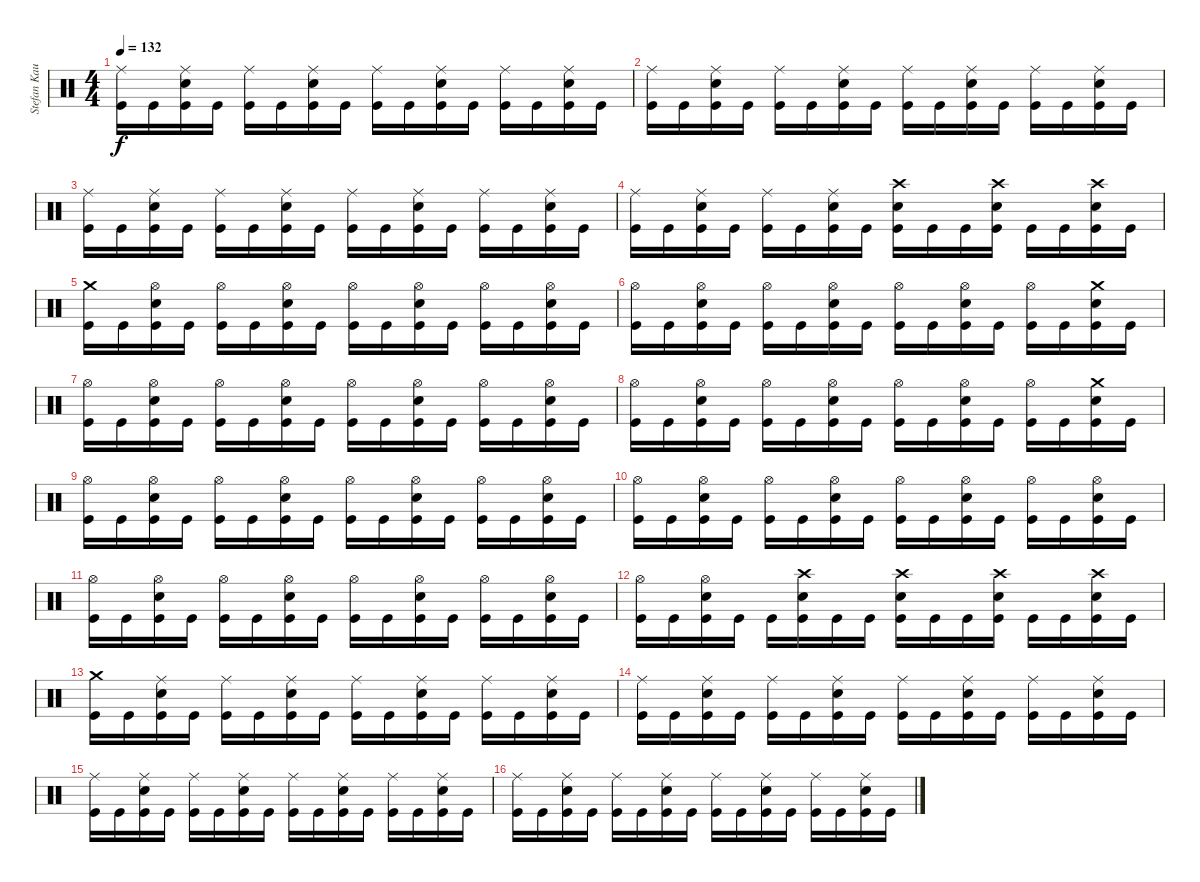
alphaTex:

\track ("Stefan Kaufmann" "Stefan Kau") {instrument percussion}
\staff {score}
\articulation defaults
\ts (4 4)
\tempo 132
\clef neutral
\ks c
("Ride (middle)" "Kick (hit)").16{dy f} "Kick (hit)".16 ("Ride (middle)" "Snare (hit) 2" "Kick (hit)").16 "Kick (hit)".16 ("Ride (middle)" "Kick (hit)").16 "Kick (hit)".16 ("Ride (middle)" "Snare (hit) 2" "Kick (hit)").16 "Kick (hit)".16 ("Ride (middle)" "Kick (hit)").16 "Kick (hit)".16 ("Ride (middle)" "Snare (hit) 2" "Kick (hit)").16 "Kick (hit)".16 ("Ride (middle)" "Kick (hit)").16 "Kick (hit)".16 ("Ride (middle)" "Snare (hit) 2" "Kick (hit)").16 "Kick (hit)".16 |
("Ride (middle)" "Kick (hit)").16 "Kick (hit)".16 ("Ride (middle)" "Snare (hit) 2" "Kick (hit)").16 "Kick (hit)".16 ("Ride (middle)" "Kick (hit)").16 "Kick (hit)".16 ("Ride (middle)" "Snare (hit) 2" "Kick (hit)").16 "Kick (hit)".16 ("Ride (middle)" "Kick (hit)").16 "Kick (hit)".16 ("Ride (middle)" "Snare (hit) 2" "Kick (hit)").16 "Kick (hit)".16 ("Ride (middle)" "Kick (hit)").16 "Kick (hit)".16 ("Ride (middle)" "Snare (hit) 2" "Kick (hit)").16 "Kick (hit)".16 |
("Ride (middle)" "Kick (hit)").16 "Kick (hit)".16 ("Ride (middle)" "Snare (hit) 2" "Kick (hit)").16 "Kick (hit)".16 ("Ride (middle)" "Kick (hit)").16 "Kick (hit)".16 ("Ride (middle)" "Snare (hit) 2" "Kick (hit)").16 "Kick (hit)".16 ("Ride (middle)" "Kick (hit)").16 "Kick (hit)".16 ("Ride (middle)" "Snare (hit) 2" "Kick (hit)").16 "Kick (hit)".16 ("Ride (middle)" "Kick (hit)").16 "Kick (hit)".16 ("Ride (middle)" "Snare (hit) 2" "Kick (hit)").16 "Kick (hit)".16 |
("Ride (middle)" "Kick (hit)").16 "Kick (hit)".16 ("Ride (middle)" "Snare (hit) 2" "Kick (hit)").16 "Kick (hit)".16 ("Ride (middle)" "Kick (hit)").16 "Kick (hit)".16 ("Ride (middle)" "Snare (hit) 2" "Kick (hit)").16 "Kick (hit)".16 ("Crash high (hit)" "Snare (hit) 2" "Kick (hit)").16 "Kick (hit)".16 "Kick (hit)".16 ("Crash high (hit)" "Snare (hit) 2" "Kick (hit)").16 "Kick (hit)".16 "Kick (hit)".16 ("Crash high (hit)" "Snare (hit) 2" "Kick (hit)").16 "Kick (hit)".16 |
("Crash medium (hit)" "Kick (hit)").16 "Kick (hit)".16 ("Hi-Hat (open)" "Snare (hit) 2" "Kick (hit)").16 "Kick (hit)".16 ("Hi-Hat (open)" "Kick (hit)").16 "Kick (hit)".16 ("Hi-Hat (open)" "Snare (hit) 2" "Kick (hit)").16 "Kick (hit)".16 ("Hi-Hat (open)" "Kick (hit)").16 "Kick (hit)".16 ("Hi-Hat (open)" "Snare (hit) 2" "Kick (hit)").16 "Kick (hit)".16 ("Hi-Hat (open)" "Kick (hit)").16 "Kick (hit)".16 ("Hi-Hat (open)" "Snare (hit) 2" "Kick (hit)").16 "Kick (hit)".16 |
("Hi-Hat (open)" "Kick (hit)").16 "Kick (hit)".16 ("Hi-Hat (open)" "Snare (hit) 2" "Kick (hit)").16 "Kick (hit)".16 ("Hi-Hat (open)" "Kick (hit)").16 "Kick (hit)".16 ("Hi-Hat (open)" "Snare (hit) 2" "Kick (hit)").16 "Kick (hit)".16 ("Hi-Hat (open)" "Kick (hit)").16 "Kick (hit)".16 ("Hi-Hat (open)" "Snare (hit) 2" "Kick (hit)").16 "Kick (hit)".16 ("Hi-Hat (open)" "Kick (hit)").16 "Kick (hit)".16 ("Crash medium (hit)" "Snare (hit) 2" "Kick (hit)").16 "Kick (hit)".16 |
("Hi-Hat (open)" "Kick (hit)").16 "Kick (hit)".16 ("Hi-Hat (open)" "Snare (hit) 2" "Kick (hit)").16 "Kick (hit)".16 ("Hi-Hat (open)" "Kick (hit)").16 "Kick (hit)".16 ("Hi-Hat (open)" "Snare (hit) 2" "Kick (hit)").16 "Kick (hit)".16 ("Hi-Hat (open)" "Kick (hit)").16 "Kick (hit)".16 ("Hi-Hat (open)" "Snare (hit) 2" "Kick (hit)").16 "Kick (hit)".16 ("Hi-Hat (open)" "Kick (hit)").16 "Kick (hit)".16 ("Hi-Hat (open)" "Snare (hit) 2" "Kick (hit)").16 "Kick (hit)".16 |
("Hi-Hat (open)" "Kick (hit)").16 "Kick (hit)".16 ("Hi-Hat (open)" "Snare (hit) 2" "Kick (hit)").16 "Kick (hit)".16 ("Hi-Hat (open)" "Kick (hit)").16 "Kick (hit)".16 ("Hi-Hat (open)" "Snare (hit) 2" "Kick (hit)").16 "Kick (hit)".16 ("Hi-Hat (open)" "Kick (hit)").16 "Kick (hit)".16 ("Hi-Hat (open)" "Snare (hit) 2" "Kick (hit)").16 "Kick (hit)".16 ("Hi-Hat (open)" "Kick (hit)").16 "Kick (hit)".16 ("Crash medium (hit)" "Snare (hit) 2" "Kick (hit)").16 "Kick (hit)".16 |
("Hi-Hat (open)" "Kick (hit)").16 "Kick (hit)".16 ("Hi-Hat (open)" "Snare (hit) 2" "Kick (hit)").16 "Kick (hit)".16 ("Hi-Hat (open)" "Kick (hit)").16 "Kick (hit)".16 ("Hi-Hat (open)" "Snare (hit) 2" "Kick (hit)").16 "Kick (hit)".16 ("Hi-Hat (open)" "Kick (hit)").16 "Kick (hit)".16 ("Hi-Hat (open)" "Snare (hit) 2" "Kick (hit)").16 "Kick (hit)".16 ("Hi-Hat (open)" "Kick (hit)").16 "Kick (hit)".16 ("Hi-Hat (open)" "Snare (hit) 2" "Kick (hit)").16 "Kick (hit)".16 |
("Hi-Hat (open)" "Kick (hit)").16 "Kick (hit)".16 ("Hi-Hat (open)" "Snare (hit) 2" "Kick (hit)").16 "Kick (hit)".16 ("Hi-Hat (open)" "Kick (hit)").16 "Kick (hit)".16 ("Hi-Hat (open)" "Snare (hit) 2" "Kick (hit)").16 "Kick (hit)".16 ("Hi-Hat (open)" "Kick (hit)").16 "Kick (hit)".16 ("Hi-Hat (open)" "Snare (hit) 2" "Kick (hit)").16 "Kick (hit)".16 ("Hi-Hat (open)" "Kick (hit)").16 "Kick (hit)".16 ("Hi-Hat (open)" "Snare (hit) 2" "Kick (hit)").16 "Kick (hit)".16 |
("Hi-Hat (open)" "Kick (hit)").16 "Kick (hit)".16 ("Hi-Hat (open)" "Snare (hit) 2" "Kick (hit)").16 "Kick (hit)".16 ("Hi-Hat (open)" "Kick (hit)").16 "Kick (hit)".16 ("Hi-Hat (open)" "Snare (hit) 2" "Kick (hit)").16 "Kick (hit)".16 ("Hi-Hat (open)" "Kick (hit)").16 "Kick (hit)".16 ("Hi-Hat (open)" "Snare (hit) 2" "Kick (hit)").16 "Kick (hit)".16 ("Hi-Hat (open)" "Kick (hit)").16 "Kick (hit)".16 ("Hi-Hat (open)" "Snare (hit) 2" "Kick (hit)").16 "Kick (hit)".16 |
("Hi-Hat (open)" "Kick (hit)").16 "Kick (hit)".16 ("Hi-Hat (open)" "Snare (hit) 2" "Kick (hit)").16 "Kick (hit)".16 "Kick (hit)".16 ("Crash high (hit)" "Snare (hit) 2" "Kick (hit)").16 "Kick (hit)".16 "Kick (hit)".16 ("Crash high (hit)" "Snare (hit) 2" "Kick (hit)").16 "Kick (hit)".16 "Kick (hit)".16 ("Crash high (hit)" "Snare (hit) 2" "Kick (hit)").16 "Kick (hit)".16 "Kick (hit)".16 ("Crash high (hit)" "Snare (hit) 2" "Kick (hit)").16 "Kick (hit)".16 |
("Crash medium (hit)" "Kick (hit)").16 "Kick (hit)".16 ("Ride (middle)" "Snare (hit) 2" "Kick (hit)").16 "Kick (hit)".16 ("Ride (middle)" "Kick (hit)").16 "Kick (hit)".16 ("Ride (middle)" "Snare (hit) 2" "Kick (hit)").16 "Kick (hit)".16 ("Ride (middle)" "Kick (hit)").16 "Kick (hit)".16 ("Ride (middle)" "Snare (hit) 2" "Kick (hit)").16 "Kick (hit)".16 ("Ride (middle)" "Kick (hit)").16 "Kick (hit)".16 ("Ride (middle)" "Snare (hit) 2" "Kick (hit)").16 "Kick (hit)".16 |
("Ride (middle)" "Kick (hit)").16 "Kick (hit)".16 ("Ride (middle)" "Snare (hit) 2" "Kick (hit)").16 "Kick (hit)".16 ("Ride (middle)" "Kick (hit)").16 "Kick (hit)".16 ("Ride (middle)" "Snare (hit) 2" "Kick (hit)").16 "Kick (hit)".16 ("Ride (middle)" "Kick (hit)").16 "Kick (hit)".16 ("Ride (middle)" "Snare (hit) 2" "Kick (hit)").16 "Kick (hit)".16 ("Ride (middle)" "Kick (hit)").16 "Kick (hit)".16 ("Ride (middle)" "Snare (hit) 2" "Kick (hit)").16 "Kick (hit)".16 |
("Ride (middle)" "Kick (hit)").16 "Kick (hit)".16 ("Ride (middle)" "Snare (hit) 2" "Kick (hit)").16 "Kick (hit)".16 ("Ride (middle)" "Kick (hit)").16 "Kick (hit)".16 ("Ride (middle)" "Snare (hit) 2" "Kick (hit)").16 "Kick (hit)".16 ("Ride (middle)" "Kick (hit)").16 "Kick (hit)".16 ("Ride (middle)" "Snare (hit) 2" "Kick (hit)").16 "Kick (hit)".16 ("Ride (middle)" "Kick (hit)").16 "Kick (hit)".16 ("Ride (middle)" "Snare (hit) 2" "Kick (hit)").16 "Kick (hit)".16 |
("Ride (middle)" "Kick (hit)").16 "Kick (hit)".16 ("Ride (middle)" "Snare (hit) 2" "Kick (hit)").16 "Kick (hit)".16 ("Ride (middle)" "Kick (hit)").16 "Kick (hit)".16 ("Ride (middle)" "Snare (hit) 2" "Kick (hit)").16 "Kick (hit)".16 ("Ride (middle)" "Kick (hit)").16 "Kick (hit)".16 ("Ride (middle)" "Snare (hit) 2" "Kick (hit)").16 "Kick (hit)".16 ("Ride (middle)" "Kick (hit)").16 "Kick (hit)".16 ("Ride (middle)" "Snare (hit) 2" "Kick (hit)").16 "Kick (hit)".16
